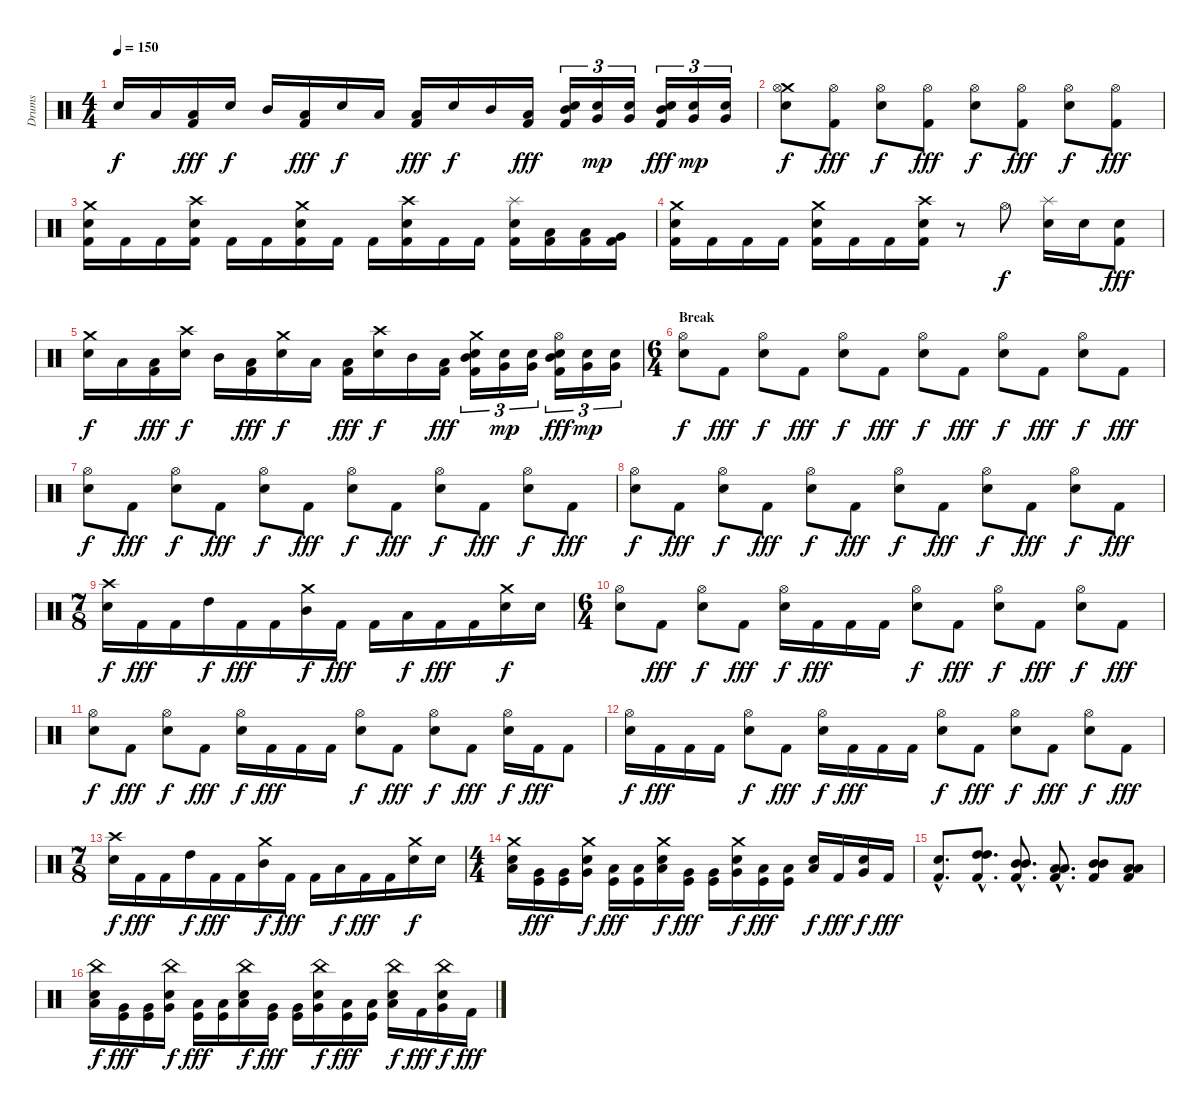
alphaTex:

\track ("Drums" "Drums") {instrument percussion}
\staff {score}
\articulation defaults
\ts (4 4)
\tempo 150
\clef neutral
\ks c "Electric Snare (hit)".16{dy f} "Low Tom (hit)".16
("Low Tom (hit)" "Kick (hit) 2").16{dy fff} "Electric Snare (hit)".16{dy f} "Mid Tom (hit)".16 ("Low Tom (hit)" "Kick (hit) 2").16{dy fff} "Electric Snare (hit)".16{dy f} "Low Tom (hit)".16 ("Low Tom (hit)" "Kick (hit) 2").16{dy fff} "Electric Snare (hit)".16{dy f} "Mid Tom (hit)".16 ("Low Tom (hit)" "Kick (hit) 2").16{dy fff} ("Mid Tom (hit)" "Electric Snare (hit)" "Kick (hit) 2").16{tu (3 2)} ("Very Low Tom (hit)" "Electric Snare (hit)").16{tu (3 2) dy mp} ("Very Low Tom (hit)" "Electric Snare (hit)").16{tu (3 2)} ("Mid Tom (hit)" "Electric Snare (hit)" "Kick (hit) 2").16{tu (3 2) dy fff} ("Very Low Tom (hit)" "Electric Snare (hit)").16{tu (3 2) dy mp} ("Very Low Tom (hit)" "Electric Snare (hit)").16{tu (3 2)} |
("Crash medium (hit)" "Hi-Hat (open)" "Electric Snare (hit)").8{dy f} ("Hi-Hat (open)" "Kick (hit) 2").8{dy fff} ("Hi-Hat (open)" "Electric Snare (hit)").8{dy f} ("Hi-Hat (open)" "Kick (hit) 2").8{dy fff} ("Hi-Hat (open)" "Electric Snare (hit)").8{dy f} ("Hi-Hat (open)" "Kick (hit) 2").8{dy fff} ("Hi-Hat (open)" "Electric Snare (hit)").8{dy f} ("Hi-Hat (open)" "Kick (hit) 2").8{dy fff} |
("Crash medium (hit)" "Electric Snare (hit)" "Kick (hit) 2").16 "Kick (hit) 2".16 "Kick (hit) 2".16 ("Crash high (hit)" "Electric Snare (hit)" "Kick (hit) 2").16 "Kick (hit) 2".16 "Kick (hit) 2".16 ("Crash medium (hit)" "Electric Snare (hit)" "Kick (hit) 2").16 "Kick (hit) 2".16 "Kick (hit) 2".16 ("Crash high (hit)" "Electric Snare (hit)" "Kick (hit) 2").16 "Kick (hit) 2".16 "Kick (hit) 2".16 ("Splash (hit)" "Electric Snare (hit)" "Kick (hit) 2").16 ("Low Tom (hit)" "Kick (hit) 2").16 ("Low Tom (hit)" "Kick (hit) 2").16 ("Very Low Tom (hit)" "Kick (hit) 2").16 |
("Crash medium (hit)" "Electric Snare (hit)" "Kick (hit) 2").16 "Kick (hit) 2".16 "Kick (hit) 2".16 "Kick (hit) 2".16 ("Crash medium (hit)" "Electric Snare (hit)" "Kick (hit) 2").16 "Kick (hit) 2".16 "Kick (hit) 2".16 ("Crash high (hit)" "Electric Snare (hit)" "Kick (hit) 2").16 r.8 "Hi-Hat (open)".8{dy f} ("Splash (hit)" "Electric Snare (hit)").16 "Electric Snare (hit)".16 ("Electric Snare (hit)" "Kick (hit) 2").8{dy fff} |
("Crash medium (hit)" "Electric Snare (hit)").16{dy f} "Low Tom (hit)".16 ("Low Tom (hit)" "Kick (hit) 2").16{dy fff} ("Crash high (hit)" "Electric Snare (hit)").16{dy f} "Mid Tom (hit)".16 ("Low Tom (hit)" "Kick (hit) 2").16{dy fff} ("Crash medium (hit)" "Electric Snare (hit)").16{dy f} "Low Tom (hit)".16 ("Low Tom (hit)" "Kick (hit) 2").16{dy fff} ("Crash high (hit)" "Electric Snare (hit)").16{dy f} "Mid Tom (hit)".16 ("Low Tom (hit)" "Kick (hit) 2").16{dy fff} ("Crash medium (hit)" "Mid Tom (hit)" "Electric Snare (hit)" "Kick (hit) 2").16{tu (3 2)} ("Very Low Tom (hit)" "Electric Snare (hit)").16{tu (3 2) dy mp} ("Very Low Tom (hit)" "Electric Snare (hit)").16{tu (3 2)} ("Hi-Hat (open)" "Mid Tom (hit)" "Electric Snare (hit)" "Kick (hit) 2").16{tu (3 2) dy fff} ("Very Low Tom (hit)" "Electric Snare (hit)").16{tu (3 2) dy mp} ("Very Low Tom (hit)" "Electric Snare (hit)").16{tu (3 2)} |
\ts (6 4)
\section ("" "Break")
("Hi-Hat (open)" "Electric Snare (hit)").8{dy f} "Kick (hit) 2".8{dy fff} ("Hi-Hat (open)" "Electric Snare (hit)").8{dy f} "Kick (hit) 2".8{dy fff} ("Hi-Hat (open)" "Electric Snare (hit)").8{dy f} "Kick (hit) 2".8{dy fff} ("Hi-Hat (open)" "Electric Snare (hit)").8{dy f} "Kick (hit) 2".8{dy fff} ("Hi-Hat (open)" "Electric Snare (hit)").8{dy f} "Kick (hit) 2".8{dy fff} ("Hi-Hat (open)" "Electric Snare (hit)").8{dy f} "Kick (hit) 2".8{dy fff} |
("Hi-Hat (open)" "Electric Snare (hit)").8{dy f} "Kick (hit) 2".8{dy fff} ("Hi-Hat (open)" "Electric Snare (hit)").8{dy f} "Kick (hit) 2".8{dy fff} ("Hi-Hat (open)" "Electric Snare (hit)").8{dy f} "Kick (hit) 2".8{dy fff} ("Hi-Hat (open)" "Electric Snare (hit)").8{dy f} "Kick (hit) 2".8{dy fff} ("Hi-Hat (open)" "Electric Snare (hit)").8{dy f} "Kick (hit) 2".8{dy fff} ("Hi-Hat (open)" "Electric Snare (hit)").8{dy f} "Kick (hit) 2".8{dy fff} |
("Hi-Hat (open)" "Electric Snare (hit)").8{dy f} "Kick (hit) 2".8{dy fff} ("Hi-Hat (open)" "Electric Snare (hit)").8{dy f} "Kick (hit) 2".8{dy fff} ("Hi-Hat (open)" "Electric Snare (hit)").8{dy f} "Kick (hit) 2".8{dy fff} ("Hi-Hat (open)" "Electric Snare (hit)").8{dy f} "Kick (hit) 2".8{dy fff} ("Hi-Hat (open)" "Electric Snare (hit)").8{dy f} "Kick (hit) 2".8{dy fff} ("Hi-Hat (open)" "Electric Snare (hit)").8{dy f} "Kick (hit) 2".8{dy fff} |
\ts (7 8)
("Crash high (hit)" "Electric Snare (hit)").16{dy f} "Kick (hit) 2".16{dy fff} "Kick (hit) 2".16 "High Tom (hit)".16{dy f} "Kick (hit) 2".16{dy fff} "Kick (hit) 2".16 ("Crash medium (hit)" "Mid Tom (hit)").16{dy f} "Kick (hit) 2".16{dy fff} "Kick (hit) 2".16 "Low Tom (hit)".16{dy f} "Kick (hit) 2".16{dy fff} "Kick (hit) 2".16 ("Crash medium (hit)" "Electric Snare (hit)").16{dy f} "Electric Snare (hit)".16 |
\ts (6 4)
("Hi-Hat (open)" "Electric Snare (hit)").8 "Kick (hit) 2".8{dy fff} ("Hi-Hat (open)" "Electric Snare (hit)").8{dy f} "Kick (hit) 2".8{dy fff} ("Hi-Hat (open)" "Electric Snare (hit)").16{dy f} "Kick (hit) 2".16{dy fff} "Kick (hit) 2".16 "Kick (hit) 2".16 ("Hi-Hat (open)" "Electric Snare (hit)").8{dy f} "Kick (hit) 2".8{dy fff} ("Hi-Hat (open)" "Electric Snare (hit)").8{dy f} "Kick (hit) 2".8{dy fff} ("Hi-Hat (open)" "Electric Snare (hit)").8{dy f} "Kick (hit) 2".8{dy fff} |
("Hi-Hat (open)" "Electric Snare (hit)").8{dy f} "Kick (hit) 2".8{dy fff} ("Hi-Hat (open)" "Electric Snare (hit)").8{dy f} "Kick (hit) 2".8{dy fff} ("Hi-Hat (open)" "Electric Snare (hit)").16{dy f} "Kick (hit) 2".16{dy fff} "Kick (hit) 2".16 "Kick (hit) 2".16 ("Hi-Hat (open)" "Electric Snare (hit)").8{dy f} "Kick (hit) 2".8{dy fff} ("Hi-Hat (open)" "Electric Snare (hit)").8{dy f} "Kick (hit) 2".8{dy fff} ("Hi-Hat (open)" "Electric Snare (hit)").16{dy f} "Kick (hit) 2".16{dy fff} "Kick (hit) 2".8 |
("Hi-Hat (open)" "Electric Snare (hit)").16{dy f} "Kick (hit) 2".16{dy fff} "Kick (hit) 2".16 "Kick (hit) 2".16 ("Hi-Hat (open)" "Electric Snare (hit)").8{dy f} "Kick (hit) 2".8{dy fff} ("Hi-Hat (open)" "Electric Snare (hit)").16{dy f} "Kick (hit) 2".16{dy fff} "Kick (hit) 2".16 "Kick (hit) 2".16 ("Hi-Hat (open)" "Electric Snare (hit)").8{dy f} "Kick (hit) 2".8{dy fff} ("Hi-Hat (open)" "Electric Snare (hit)").8{dy f} "Kick (hit) 2".8{dy fff} ("Hi-Hat (open)" "Electric Snare (hit)").8{dy f} "Kick (hit) 2".8{dy fff} |
\ts (7 8)
("Crash high (hit)" "Electric Snare (hit)").16{dy f} "Kick (hit) 2".16{dy fff} "Kick (hit) 2".16 "High Tom (hit)".16{dy f} "Kick (hit) 2".16{dy fff} "Kick (hit) 2".16 ("Crash medium (hit)" "Mid Tom (hit)").16{dy f} "Kick (hit) 2".16{dy fff} "Kick (hit) 2".16 "Low Tom (hit)".16{dy f} "Kick (hit) 2".16{dy fff} "Kick (hit) 2".16 ("Crash medium (hit)" "Electric Snare (hit)").16{dy f} "Electric Snare (hit)".16 |
\ts (4 4)
("Crash medium (hit)" "Low Tom (hit)" "Electric Snare (hit)").16 ("Very Low Tom (hit)" "Kick (hit)").16{dy fff} ("Very Low Tom (hit)" "Kick (hit)").16 ("Crash medium (hit)" "Very Low Tom (hit)" "Electric Snare (hit)").16{dy f} ("Low Floor Tom (hit)" "Kick (hit)").16{dy fff} ("Low Floor Tom (hit)" "Kick (hit)").16 ("Crash medium (hit)" "Low Tom (hit)" "Electric Snare (hit)").16{dy f} ("Very Low Tom (hit)" "Kick (hit)").16{dy fff} ("Very Low Tom (hit)" "Kick (hit)").16 ("Crash medium (hit)" "Very Low Tom (hit)" "Electric Snare (hit)").16{dy f} ("Low Floor Tom (hit)" "Kick (hit)").16{dy fff} ("Low Floor Tom (hit)" "Kick (hit)").16 ("Low Tom (hit)" "Electric Snare (hit)").16{dy f} "Kick (hit) 2".16{dy fff} ("Very Low Tom (hit)" "Electric Snare (hit)").16{dy f} "Kick (hit) 2".16{dy fff} |
("Electric Snare (hit)"{hac} "Kick (hit) 2"{hac}).8{d} ("High Tom (hit)"{hac} "High Tom (hit)"{hac} "Kick (hit) 2"{hac}).8{d bd 240} ("Mid Tom (hit)"{hac} "Mid Tom (hit)"{hac} "Kick (hit) 2"{hac}).8{d bd 240} ("Low Tom (hit)"{hac} "Low Tom (hit)"{hac} "Kick (hit) 2"{hac}).8{d bd 240} ("Mid Tom (hit)" "Mid Tom (hit)" "Kick (hit) 2").8{bd 240} ("Low Tom (hit)" "Low Tom (hit)" "Kick (hit) 2").8{bd 240} |
("China (hit)" "Low Tom (hit)" "Electric Snare (hit)").16{dy f} ("Very Low Tom (hit)" "Kick (hit)").16{dy fff} ("Very Low Tom (hit)" "Kick (hit)").16 ("China (hit)" "Very Low Tom (hit)" "Electric Snare (hit)").16{dy f} ("Low Floor Tom (hit)" "Kick (hit)").16{dy fff} ("Low Floor Tom (hit)" "Kick (hit)").16 ("China (hit)" "Low Tom (hit)" "Electric Snare (hit)").16{dy f} ("Very Low Tom (hit)" "Kick (hit)").16{dy fff} ("Very Low Tom (hit)" "Kick (hit)").16 ("China (hit)" "Very Low Tom (hit)" "Electric Snare (hit)").16{dy f} ("Low Floor Tom (hit)" "Kick (hit)").16{dy fff} ("Low Floor Tom (hit)" "Kick (hit)").16 ("China (hit)" "Low Tom (hit)" "Electric Snare (hit)").16{dy f} "Kick (hit) 2".16{dy fff} ("China (hit)" "Very Low Tom (hit)" "Electric Snare (hit)").16{dy f} "Kick (hit) 2".16{dy fff}
